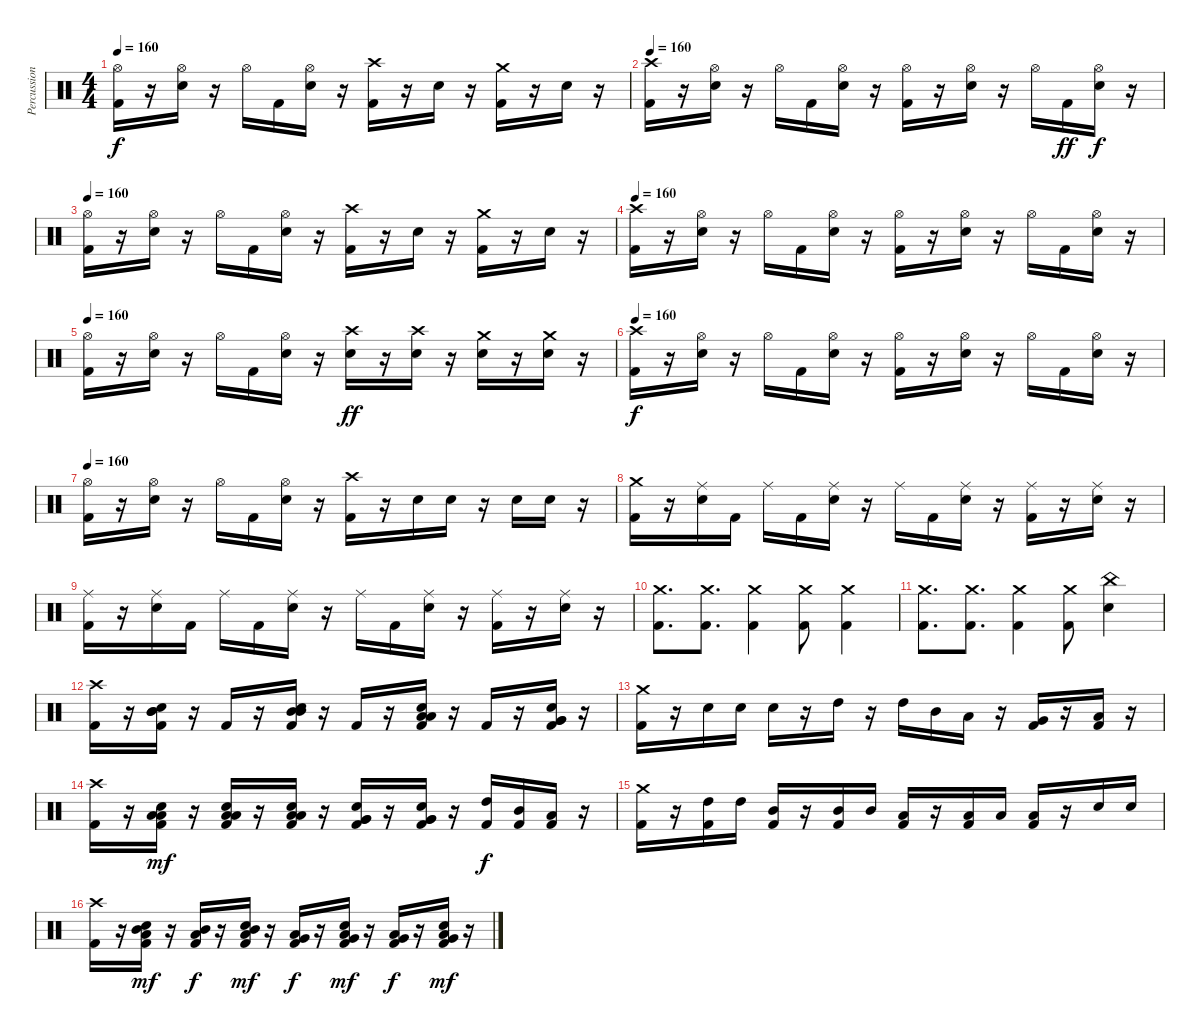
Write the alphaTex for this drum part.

\track ("Percussion" "Percussion") {instrument percussion}
\staff {score}
\articulation defaults
\ts (4 4)
\tempo 160
\clef neutral
\ks c
("Hi-Hat (open)" "Kick (hit) 2").16{dy f} r.16 ("Hi-Hat (open)" "Snare (hit) 2").16 r.16 "Hi-Hat (open)".16 "Kick (hit) 2".16 ("Hi-Hat (open)" "Snare (hit) 2").16 r.16 ("Crash high (hit)" "Kick (hit) 2").16 r.16 "Snare (hit) 2".16 r.16 ("Crash medium (hit)" "Kick (hit) 2").16 r.16 "Snare (hit) 2".16 r.16 |
\tempo 160
("Crash high (hit)" "Kick (hit) 2").16 r.16 ("Hi-Hat (open)" "Snare (hit) 2").16 r.16 "Hi-Hat (open)".16 "Kick (hit) 2".16 ("Hi-Hat (open)" "Snare (hit) 2").16 r.16 ("Hi-Hat (open)" "Kick (hit) 2").16 r.16 ("Hi-Hat (open)" "Snare (hit) 2").16 r.16 "Hi-Hat (open)".16 "Kick (hit) 2".16{dy ff} ("Hi-Hat (open)" "Snare (hit) 2").16{dy f} r.16 |
\tempo 160
("Hi-Hat (open)" "Kick (hit) 2").16 r.16 ("Hi-Hat (open)" "Snare (hit) 2").16 r.16 "Hi-Hat (open)".16 "Kick (hit) 2".16 ("Hi-Hat (open)" "Snare (hit) 2").16 r.16 ("Crash high (hit)" "Kick (hit) 2").16 r.16 "Snare (hit) 2".16 r.16 ("Crash medium (hit)" "Kick (hit) 2").16 r.16 "Snare (hit) 2".16 r.16 |
\tempo 160
("Crash high (hit)" "Kick (hit) 2").16 r.16 ("Hi-Hat (open)" "Snare (hit) 2").16 r.16 "Hi-Hat (open)".16 "Kick (hit) 2".16 ("Hi-Hat (open)" "Snare (hit) 2").16 r.16 ("Hi-Hat (open)" "Kick (hit) 2").16 r.16 ("Hi-Hat (open)" "Snare (hit) 2").16 r.16 "Hi-Hat (open)".16 "Kick (hit) 2".16 ("Hi-Hat (open)" "Snare (hit) 2").16 r.16 |
\tempo 160
("Hi-Hat (open)" "Kick (hit) 2").16 r.16 ("Hi-Hat (open)" "Snare (hit) 2").16 r.16 "Hi-Hat (open)".16 "Kick (hit) 2".16 ("Hi-Hat (open)" "Snare (hit) 2").16 r.16 ("Crash high (hit)" "Snare (hit) 2").16{dy ff} r.16 ("Crash high (hit)" "Snare (hit) 2").16 r.16 ("Crash medium (hit)" "Snare (hit) 2").16 r.16 ("Crash medium (hit)" "Snare (hit) 2").16 r.16 |
\tempo 160
("Crash high (hit)" "Kick (hit) 2").16{dy f} r.16 ("Hi-Hat (open)" "Snare (hit) 2").16 r.16 "Hi-Hat (open)".16 "Kick (hit) 2".16 ("Hi-Hat (open)" "Snare (hit) 2").16 r.16 ("Hi-Hat (open)" "Kick (hit) 2").16 r.16 ("Hi-Hat (open)" "Snare (hit) 2").16 r.16 "Hi-Hat (open)".16 "Kick (hit) 2".16 ("Hi-Hat (open)" "Snare (hit) 2").16 r.16 |
\tempo 160
("Hi-Hat (open)" "Kick (hit) 2").16 r.16 ("Hi-Hat (open)" "Snare (hit) 2").16 r.16 "Hi-Hat (open)".16 "Kick (hit) 2".16 ("Hi-Hat (open)" "Snare (hit) 2").16 r.16 ("Crash high (hit)" "Kick (hit) 2").16 r.16 "Snare (hit) 2".16 "Snare (hit) 2".16 r.16 "Snare (hit) 2".16 "Snare (hit) 2".16 r.16 |
("Crash medium (hit)" "Kick (hit) 2").16 r.16 ("Ride (middle)" "Snare (hit) 2").16 "Kick (hit) 2".16 "Ride (middle)".16 "Kick (hit) 2".16 ("Ride (middle)" "Snare (hit) 2").16 r.16 "Ride (middle)".16 "Kick (hit) 2".16 ("Ride (middle)" "Snare (hit) 2").16 r.16 ("Ride (middle)" "Kick (hit) 2").16 r.16 ("Ride (middle)" "Snare (hit) 2").16 r.16 |
("Ride (middle)" "Kick (hit) 2").16 r.16 ("Ride (middle)" "Snare (hit) 2").16 "Kick (hit) 2".16 "Ride (middle)".16 "Kick (hit) 2".16 ("Ride (middle)" "Snare (hit) 2").16 r.16 "Ride (middle)".16 "Kick (hit) 2".16 ("Ride (middle)" "Snare (hit) 2").16 r.16 ("Ride (middle)" "Kick (hit) 2").16 r.16 ("Ride (middle)" "Snare (hit) 2").16 r.16 |
("Crash medium (hit)" "Kick (hit) 2").8{d} ("Crash medium (hit)" "Kick (hit) 2").8{d} ("Crash medium (hit)" "Kick (hit) 2").4 ("Crash medium (hit)" "Kick (hit) 2").8 ("Crash medium (hit)" "Kick (hit) 2").4 |
("Crash medium (hit)" "Kick (hit) 2").8{d} ("Crash medium (hit)" "Kick (hit) 2").8{d} ("Crash medium (hit)" "Kick (hit) 2").4 ("Crash medium (hit)" "Kick (hit) 2").8 ("China (hit)" "Snare (hit) 2").4 |
("Crash high (hit)" "Kick (hit) 2").16 r.16 ("Mid Tom (hit)" "Snare (hit) 2" "Mid Tom (hit)" "Kick (hit) 2").16 r.16 "Kick (hit) 2".16 r.16 ("Mid Tom (hit)" "Snare (hit) 2" "Mid Tom (hit)" "Kick (hit) 2").16 r.16 "Kick (hit) 2".16 r.16 ("Low Tom (hit)" "Snare (hit) 2" "Low Tom (hit)" "Kick (hit) 2").16 r.16 "Kick (hit) 2".16 r.16 ("Very Low Tom (hit)" "Snare (hit) 2" "Very Low Tom (hit)" "Kick (hit) 2").16 r.16 |
("Crash medium (hit)" "Kick (hit) 2").16 r.16 "Snare (hit) 2".16 "Snare (hit) 2".16 "Snare (hit) 2".16 r.16 "High Tom (hit)".16 r.16 "High Tom (hit)".16 "Mid Tom (hit)".16 "Low Tom (hit)".16 r.16 ("Very Low Tom (hit)" "Kick (hit) 2").16 r.16 ("Low Floor Tom (hit)" "Kick (hit) 2").16 r.16 |
("Crash high (hit)" "Kick (hit) 2").16 r.16 ("Low Tom (hit)" "Snare (hit) 2" "Low Tom (hit)" "Kick (hit) 2").16{dy mf} r.16 ("Low Tom (hit)" "Snare (hit) 2" "Low Tom (hit)" "Kick (hit) 2").16 r.16 ("Low Tom (hit)" "Snare (hit) 2" "Low Tom (hit)" "Kick (hit) 2").16 r.16 ("Very Low Tom (hit)" "Snare (hit) 2" "Very Low Tom (hit)" "Kick (hit) 2").16 r.16 ("Very Low Tom (hit)" "Snare (hit) 2" "Very Low Tom (hit)" "Kick (hit) 2").16 r.16 ("High Tom (hit)" "Kick (hit) 2").16{dy f} ("Mid Tom (hit)" "Kick (hit) 2").16 ("Low Tom (hit)" "Kick (hit) 2").16 r.16 |
("Crash medium (hit)" "Kick (hit) 2").16 r.16 ("High Tom (hit)" "Kick (hit) 2").16 "High Tom (hit)".16 ("Mid Tom (hit)" "Kick (hit) 2").16 r.16 ("Mid Tom (hit)" "Kick (hit) 2").16 "Mid Tom (hit)".16 ("Low Tom (hit)" "Kick (hit) 2").16 r.16 ("Low Tom (hit)" "Kick (hit) 2").16 "Low Tom (hit)".16 ("Low Floor Tom (hit)" "Kick (hit) 2").16 r.16 "Snare (hit) 2".16 "Snare (hit) 2".16 |
("Crash high (hit)" "Kick (hit) 2").16 r.16 ("Mid Tom (hit)" "Snare (hit) 2" "Low Tom (hit)" "Kick (hit) 2").16{dy mf} r.16 ("Mid Tom (hit)" "Low Tom (hit)" "Kick (hit) 2").16{dy f} r.16 ("Mid Tom (hit)" "Snare (hit) 2" "Low Tom (hit)" "Kick (hit) 2").16{dy mf} r.16 ("Low Tom (hit)" "Very Low Tom (hit)" "Kick (hit) 2").16{dy f} r.16 ("Low Tom (hit)" "Snare (hit) 2" "Very Low Tom (hit)" "Kick (hit) 2").16{dy mf} r.16 ("Low Tom (hit)" "Very Low Tom (hit)" "Kick (hit) 2").16{dy f} r.16 ("Very Low Tom (hit)" "Snare (hit) 2" "Low Floor Tom (hit)" "Kick (hit) 2").16{dy mf} r.16
